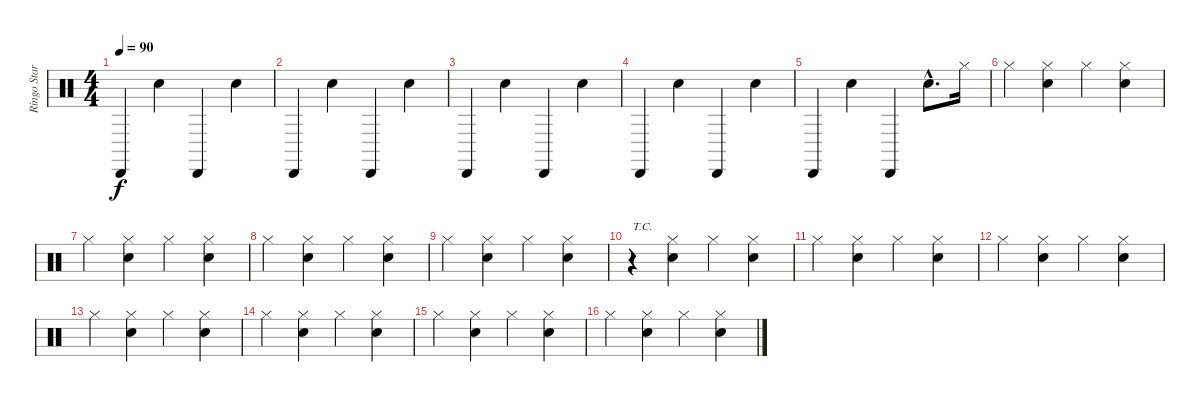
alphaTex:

\track ("Ringo Starr" "Ringo Star") {instrument percussion}
\staff {score}
\articulation defaults
\ts (4 4)
\tempo 90
\clef neutral
\ks c "Cabasa (hit)".4{dy f} "Snare (hit) 2".4 "Cabasa (hit)".4 "Snare (hit) 2".4
|
"Cabasa (hit)".4 "Snare (hit) 2".4 "Cabasa (hit)".4 "Snare (hit) 2".4 |
"Cabasa (hit)".4 "Snare (hit) 2".4 "Cabasa (hit)".4 "Snare (hit) 2".4 |
"Cabasa (hit)".4 "Snare (hit) 2".4 "Cabasa (hit)".4 "Snare (hit) 2".4 |
"Cabasa (hit)".4 "Snare (hit) 2".4 "Cabasa (hit)".4 "Snare (hit) 2"{hac}.8{d} "Hi-Hat (closed)".16 |
"Hi-Hat (closed)".4 ("Hi-Hat (closed)" "Snare (hit) 2").4 "Hi-Hat (closed)".4 ("Hi-Hat (closed)" "Snare (hit) 2").4 |
"Hi-Hat (closed)".4 ("Hi-Hat (closed)" "Snare (hit) 2").4 "Hi-Hat (closed)".4 ("Hi-Hat (closed)" "Snare (hit) 2").4 |
"Hi-Hat (closed)".4 ("Hi-Hat (closed)" "Snare (hit) 2").4 "Hi-Hat (closed)".4 ("Hi-Hat (closed)" "Snare (hit) 2").4 |
"Hi-Hat (closed)".4 ("Hi-Hat (closed)" "Snare (hit) 2").4 "Hi-Hat (closed)".4 ("Hi-Hat (closed)" "Snare (hit) 2").4 |
r.4{txt "T.C."} ("Hi-Hat (closed)" "Snare (hit) 2").4 "Hi-Hat (closed)".4 ("Hi-Hat (closed)" "Snare (hit) 2").4 |
"Hi-Hat (closed)".4 ("Hi-Hat (closed)" "Snare (hit) 2").4 "Hi-Hat (closed)".4 ("Hi-Hat (closed)" "Snare (hit) 2").4 |
"Hi-Hat (closed)".4 ("Hi-Hat (closed)" "Snare (hit) 2").4 "Hi-Hat (closed)".4 ("Hi-Hat (closed)" "Snare (hit) 2").4 |
"Hi-Hat (closed)".4 ("Hi-Hat (closed)" "Snare (hit) 2").4 "Hi-Hat (closed)".4 ("Hi-Hat (closed)" "Snare (hit) 2").4 |
"Hi-Hat (closed)".4 ("Hi-Hat (closed)" "Snare (hit) 2").4 "Hi-Hat (closed)".4 ("Hi-Hat (closed)" "Snare (hit) 2").4 |
"Hi-Hat (closed)".4 ("Hi-Hat (closed)" "Snare (hit) 2").4 "Hi-Hat (closed)".4 ("Hi-Hat (closed)" "Snare (hit) 2").4 |
"Hi-Hat (closed)".4 ("Hi-Hat (closed)" "Snare (hit) 2").4 "Hi-Hat (closed)".4 ("Hi-Hat (closed)" "Snare (hit) 2").4
